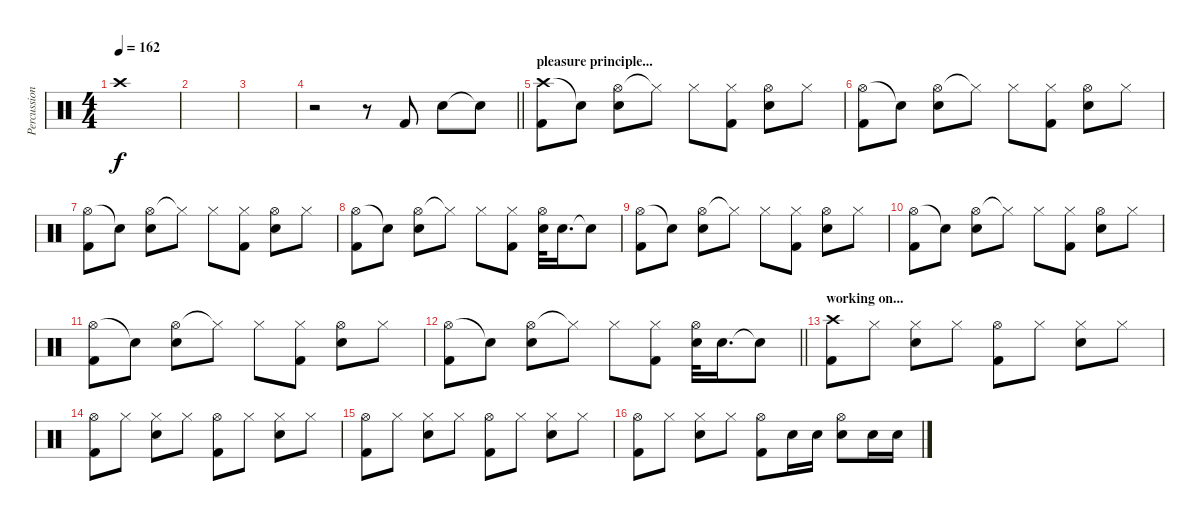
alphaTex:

\track ("Percussioni" "Percussion") {instrument percussion}
\staff {score}
\articulation defaults
\ts (4 4)
\tempo 162
\clef neutral
\ks c "Crash high (hit)".1{dy f}
|
|
|
\barLineRight lightlight
r.2 r.8 "Kick (hit) 2".8 "Snare (hit) 2".8 "Snare (hit)"{t}.8 |
\section ("" "pleasure principle...")
("Crash high (hit)" "Kick (hit) 2").8 "Snare (hit)"{t}.8 ("Hi-Hat (open)" "Snare (hit) 2").8 "Hi-Hat (closed)"{t}.8 "Hi-Hat (closed)".8 ("Hi-Hat (closed)" "Kick (hit) 2").8 ("Hi-Hat (open)" "Snare (hit) 2").8 "Hi-Hat (closed)".8 |
("Hi-Hat (open)" "Kick (hit) 2").8 "Snare (hit)"{t}.8 ("Hi-Hat (open)" "Snare (hit) 2").8 "Hi-Hat (closed)"{t}.8 "Hi-Hat (closed)".8 ("Hi-Hat (closed)" "Kick (hit) 2").8 ("Hi-Hat (open)" "Snare (hit) 2").8 "Hi-Hat (closed)".8 |
("Hi-Hat (open)" "Kick (hit) 2").8 "Snare (hit)"{t}.8 ("Hi-Hat (open)" "Snare (hit) 2").8 "Hi-Hat (closed)"{t}.8 "Hi-Hat (closed)".8 ("Hi-Hat (closed)" "Kick (hit) 2").8 ("Hi-Hat (open)" "Snare (hit) 2").8 "Hi-Hat (closed)".8 |
("Hi-Hat (open)" "Kick (hit) 2").8 "Snare (hit)"{t}.8 ("Hi-Hat (open)" "Snare (hit) 2").8 "Hi-Hat (closed)"{t}.8 "Hi-Hat (closed)".8 ("Hi-Hat (closed)" "Kick (hit) 2").8 ("Hi-Hat (open)" "Snare (hit) 2").32 "Snare (hit) 2".16{d} "Snare (hit)"{t}.8 |
("Hi-Hat (open)" "Kick (hit) 2").8 "Snare (hit)"{t}.8 ("Hi-Hat (open)" "Snare (hit) 2").8 "Hi-Hat (closed)"{t}.8 "Hi-Hat (closed)".8 ("Hi-Hat (closed)" "Kick (hit) 2").8 ("Hi-Hat (open)" "Snare (hit) 2").8 "Hi-Hat (closed)".8 |
("Hi-Hat (open)" "Kick (hit) 2").8 "Snare (hit)"{t}.8 ("Hi-Hat (open)" "Snare (hit) 2").8 "Hi-Hat (closed)"{t}.8 "Hi-Hat (closed)".8 ("Hi-Hat (closed)" "Kick (hit) 2").8 ("Hi-Hat (open)" "Snare (hit) 2").8 "Hi-Hat (closed)".8 |
("Hi-Hat (open)" "Kick (hit) 2").8 "Snare (hit)"{t}.8 ("Hi-Hat (open)" "Snare (hit) 2").8 "Hi-Hat (closed)"{t}.8 "Hi-Hat (closed)".8 ("Hi-Hat (closed)" "Kick (hit) 2").8 ("Hi-Hat (open)" "Snare (hit) 2").8 "Hi-Hat (closed)".8 |
\barLineRight lightlight
("Hi-Hat (open)" "Kick (hit) 2").8 "Snare (hit)"{t}.8 ("Hi-Hat (open)" "Snare (hit) 2").8 "Hi-Hat (closed)"{t}.8 "Hi-Hat (closed)".8 ("Hi-Hat (closed)" "Kick (hit) 2").8 ("Hi-Hat (open)" "Snare (hit) 2").32 "Snare (hit) 2".16{d} "Snare (hit)"{t}.8 |
\section ("" "working on...")
("Crash high (hit)" "Kick (hit) 2").8 "Hi-Hat (closed)".8 ("Hi-Hat (closed)" "Snare (hit) 2").8 "Hi-Hat (closed)".8 ("Hi-Hat (open)" "Kick (hit) 2").8 "Hi-Hat (closed)".8 ("Hi-Hat (closed)" "Snare (hit) 2").8 "Hi-Hat (closed)".8 |
("Hi-Hat (open)" "Kick (hit) 2").8 "Hi-Hat (closed)".8 ("Hi-Hat (closed)" "Snare (hit) 2").8 "Hi-Hat (closed)".8 ("Hi-Hat (open)" "Kick (hit) 2").8 "Hi-Hat (closed)".8 ("Hi-Hat (closed)" "Snare (hit) 2").8 "Hi-Hat (closed)".8 |
("Hi-Hat (open)" "Kick (hit) 2").8 "Hi-Hat (closed)".8 ("Hi-Hat (closed)" "Snare (hit) 2").8 "Hi-Hat (closed)".8 ("Hi-Hat (open)" "Kick (hit) 2").8 "Hi-Hat (closed)".8 ("Hi-Hat (closed)" "Snare (hit) 2").8 "Hi-Hat (closed)".8 |
("Hi-Hat (open)" "Kick (hit) 2").8 "Hi-Hat (closed)".8 ("Hi-Hat (closed)" "Snare (hit) 2").8 "Hi-Hat (closed)".8 ("Hi-Hat (open)" "Kick (hit) 2").8 "Snare (hit) 2".16 "Snare (hit) 2".16 ("Hi-Hat (open)" "Snare (hit) 2").8 "Snare (hit) 2".16 "Snare (hit) 2".16
